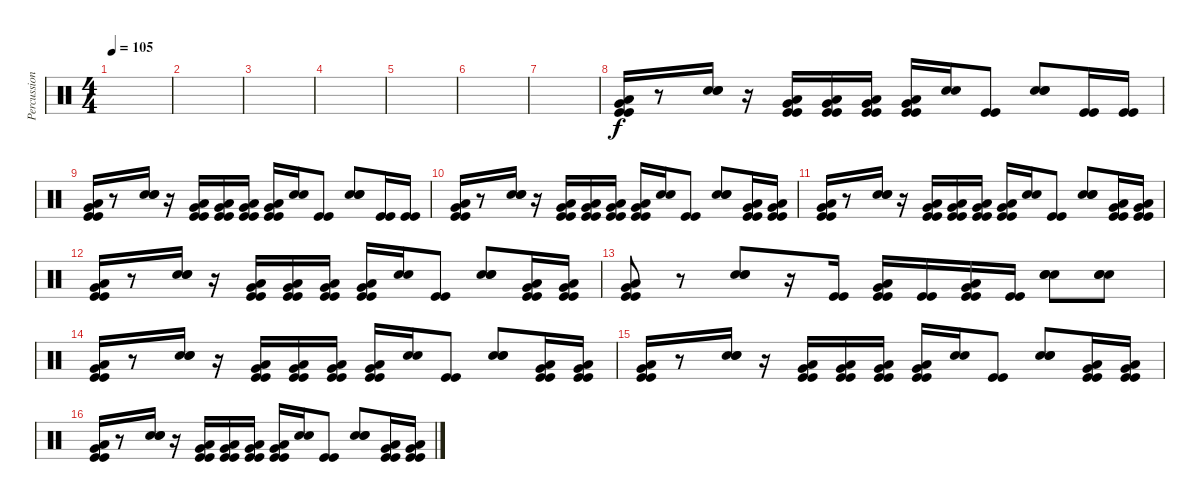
\track ("Percussions" "Percussion") {instrument percussion}
\staff {score}
\articulation defaults
\ts (4 4)
\tempo 105
\clef neutral
\ks c
|
|
|
|
|
|
|
("Very Low Tom (hit)" "Low Floor Tom (hit)" "Kick (hit)" "Kick (hit)").16{volume 13} r.8 ("Electric Snare (hit)" "Electric Snare (hit)" "Electric Snare (hit)").16 r.16 ("Very Low Tom (hit)" "Low Floor Tom (hit)" "Kick (hit)" "Kick (hit)").16 ("Very Low Tom (hit)" "Low Floor Tom (hit)" "Kick (hit)" "Kick (hit)").16 ("Very Low Tom (hit)" "Low Floor Tom (hit)" "Kick (hit)" "Kick (hit)").16 ("Very Low Tom (hit)" "Low Floor Tom (hit)" "Kick (hit)" "Kick (hit)").16 ("Electric Snare (hit)" "Electric Snare (hit)").16 ("Kick (hit)" "Kick (hit)").8 ("Electric Snare (hit)" "Electric Snare (hit)" "Electric Snare (hit)").8 ("Kick (hit)" "Kick (hit)").16 ("Kick (hit)" "Kick (hit)").16 |
("Very Low Tom (hit)" "Low Floor Tom (hit)" "Kick (hit)" "Kick (hit)").16{volume 13} r.8 ("Electric Snare (hit)" "Electric Snare (hit)" "Electric Snare (hit)").16 r.16 ("Very Low Tom (hit)" "Low Floor Tom (hit)" "Kick (hit)" "Kick (hit)").16 ("Very Low Tom (hit)" "Low Floor Tom (hit)" "Kick (hit)" "Kick (hit)").16 ("Very Low Tom (hit)" "Low Floor Tom (hit)" "Kick (hit)" "Kick (hit)").16 ("Very Low Tom (hit)" "Low Floor Tom (hit)" "Kick (hit)" "Kick (hit)").16 ("Electric Snare (hit)" "Electric Snare (hit)").16 ("Kick (hit)" "Kick (hit)").8 ("Electric Snare (hit)" "Electric Snare (hit)" "Electric Snare (hit)").8 ("Kick (hit)" "Kick (hit)").16 ("Kick (hit)" "Kick (hit)").16 |
("Very Low Tom (hit)" "Low Floor Tom (hit)" "Kick (hit)" "Kick (hit)").16{volume 13} r.8 ("Electric Snare (hit)" "Electric Snare (hit)" "Electric Snare (hit)").16 r.16 ("Very Low Tom (hit)" "Low Floor Tom (hit)" "Kick (hit)" "Kick (hit)").16 ("Very Low Tom (hit)" "Low Floor Tom (hit)" "Kick (hit)" "Kick (hit)").16 ("Very Low Tom (hit)" "Low Floor Tom (hit)" "Kick (hit)" "Kick (hit)").16 ("Very Low Tom (hit)" "Low Floor Tom (hit)" "Kick (hit)" "Kick (hit)").16 ("Electric Snare (hit)" "Electric Snare (hit)").16 ("Kick (hit)" "Kick (hit)").8 ("Electric Snare (hit)" "Electric Snare (hit)" "Electric Snare (hit)").8 ("Very Low Tom (hit)" "Low Floor Tom (hit)" "Kick (hit)" "Kick (hit)").16 ("Very Low Tom (hit)" "Low Floor Tom (hit)" "Kick (hit)" "Kick (hit)").16 |
("Very Low Tom (hit)" "Low Floor Tom (hit)" "Kick (hit)" "Kick (hit)").16{volume 13} r.8 ("Electric Snare (hit)" "Electric Snare (hit)" "Electric Snare (hit)").16 r.16 ("Very Low Tom (hit)" "Low Floor Tom (hit)" "Kick (hit)" "Kick (hit)").16 ("Very Low Tom (hit)" "Low Floor Tom (hit)" "Kick (hit)" "Kick (hit)").16 ("Very Low Tom (hit)" "Low Floor Tom (hit)" "Kick (hit)" "Kick (hit)").16 ("Very Low Tom (hit)" "Low Floor Tom (hit)" "Kick (hit)" "Kick (hit)").16 ("Electric Snare (hit)" "Electric Snare (hit)").16 ("Kick (hit)" "Kick (hit)").8 ("Electric Snare (hit)" "Electric Snare (hit)" "Electric Snare (hit)").8 ("Very Low Tom (hit)" "Low Floor Tom (hit)" "Kick (hit)" "Kick (hit)").16 ("Very Low Tom (hit)" "Low Floor Tom (hit)" "Kick (hit)" "Kick (hit)").16 |
("Very Low Tom (hit)" "Low Floor Tom (hit)" "Kick (hit)" "Kick (hit)").16{volume 13} r.8 ("Electric Snare (hit)" "Electric Snare (hit)" "Electric Snare (hit)").16 r.16 ("Very Low Tom (hit)" "Low Floor Tom (hit)" "Kick (hit)" "Kick (hit)").16 ("Very Low Tom (hit)" "Low Floor Tom (hit)" "Kick (hit)" "Kick (hit)").16 ("Very Low Tom (hit)" "Low Floor Tom (hit)" "Kick (hit)" "Kick (hit)").16 ("Very Low Tom (hit)" "Low Floor Tom (hit)" "Kick (hit)" "Kick (hit)").16 ("Electric Snare (hit)" "Electric Snare (hit)").16 ("Kick (hit)" "Kick (hit)").8 ("Electric Snare (hit)" "Electric Snare (hit)" "Electric Snare (hit)").8 ("Very Low Tom (hit)" "Low Floor Tom (hit)" "Kick (hit)" "Kick (hit)").16 ("Very Low Tom (hit)" "Low Floor Tom (hit)" "Kick (hit)" "Kick (hit)").16 |
("Very Low Tom (hit)" "Low Floor Tom (hit)" "Kick (hit)" "Kick (hit)").8{volume 13} r.8 ("Electric Snare (hit)" "Electric Snare (hit)" "Electric Snare (hit)").8 r.16 ("Kick (hit)" "Kick (hit)").16 ("Very Low Tom (hit)" "Low Floor Tom (hit)" "Kick (hit)" "Kick (hit)").16 ("Kick (hit)" "Kick (hit)").16 ("Very Low Tom (hit)" "Low Floor Tom (hit)" "Kick (hit)" "Kick (hit)").16 ("Kick (hit)" "Kick (hit)").16 ("Electric Snare (hit)" "Electric Snare (hit)" "Electric Snare (hit)").8{volume 13} ("Electric Snare (hit)" "Electric Snare (hit)" "Electric Snare (hit)").8 |
("Very Low Tom (hit)" "Low Floor Tom (hit)" "Kick (hit)" "Kick (hit)").16{volume 13} r.8 ("Electric Snare (hit)" "Electric Snare (hit)" "Electric Snare (hit)").16 r.16 ("Very Low Tom (hit)" "Low Floor Tom (hit)" "Kick (hit)" "Kick (hit)").16 ("Very Low Tom (hit)" "Low Floor Tom (hit)" "Kick (hit)" "Kick (hit)").16 ("Very Low Tom (hit)" "Low Floor Tom (hit)" "Kick (hit)" "Kick (hit)").16 ("Very Low Tom (hit)" "Low Floor Tom (hit)" "Kick (hit)" "Kick (hit)").16 ("Electric Snare (hit)" "Electric Snare (hit)").16 ("Kick (hit)" "Kick (hit)").8 ("Electric Snare (hit)" "Electric Snare (hit)" "Electric Snare (hit)").8 ("Very Low Tom (hit)" "Low Floor Tom (hit)" "Kick (hit)" "Kick (hit)").16 ("Very Low Tom (hit)" "Low Floor Tom (hit)" "Kick (hit)" "Kick (hit)").16 |
("Very Low Tom (hit)" "Low Floor Tom (hit)" "Kick (hit)" "Kick (hit)").16{volume 13} r.8 ("Electric Snare (hit)" "Electric Snare (hit)" "Electric Snare (hit)").16 r.16 ("Very Low Tom (hit)" "Low Floor Tom (hit)" "Kick (hit)" "Kick (hit)").16 ("Very Low Tom (hit)" "Low Floor Tom (hit)" "Kick (hit)" "Kick (hit)").16 ("Very Low Tom (hit)" "Low Floor Tom (hit)" "Kick (hit)" "Kick (hit)").16 ("Very Low Tom (hit)" "Low Floor Tom (hit)" "Kick (hit)" "Kick (hit)").16 ("Electric Snare (hit)" "Electric Snare (hit)").16 ("Kick (hit)" "Kick (hit)").8 ("Electric Snare (hit)" "Electric Snare (hit)" "Electric Snare (hit)").8 ("Very Low Tom (hit)" "Low Floor Tom (hit)" "Kick (hit)" "Kick (hit)").16 ("Very Low Tom (hit)" "Low Floor Tom (hit)" "Kick (hit)" "Kick (hit)").16 |
("Very Low Tom (hit)" "Low Floor Tom (hit)" "Kick (hit)" "Kick (hit)").16{volume 13} r.8 ("Electric Snare (hit)" "Electric Snare (hit)" "Electric Snare (hit)").16 r.16 ("Very Low Tom (hit)" "Low Floor Tom (hit)" "Kick (hit)" "Kick (hit)").16 ("Very Low Tom (hit)" "Low Floor Tom (hit)" "Kick (hit)" "Kick (hit)").16 ("Very Low Tom (hit)" "Low Floor Tom (hit)" "Kick (hit)" "Kick (hit)").16 ("Very Low Tom (hit)" "Low Floor Tom (hit)" "Kick (hit)" "Kick (hit)").16 ("Electric Snare (hit)" "Electric Snare (hit)").16 ("Kick (hit)" "Kick (hit)").8 ("Electric Snare (hit)" "Electric Snare (hit)" "Electric Snare (hit)").8 ("Very Low Tom (hit)" "Low Floor Tom (hit)" "Kick (hit)" "Kick (hit)").16 ("Very Low Tom (hit)" "Low Floor Tom (hit)" "Kick (hit)" "Kick (hit)").16
